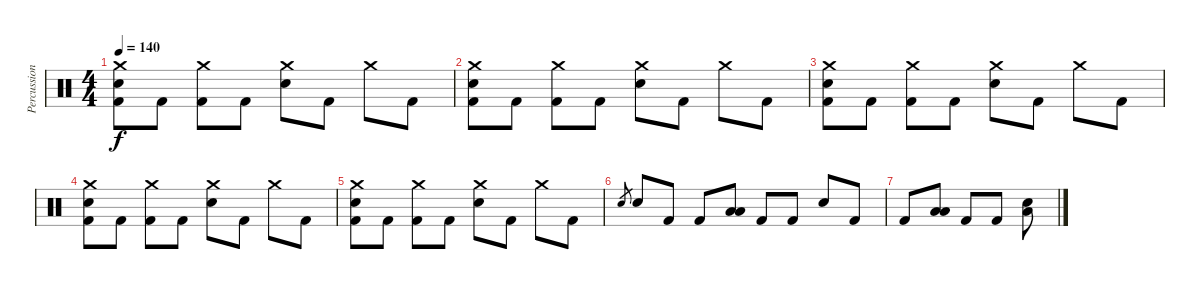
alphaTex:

\track ("Percussions" "Percussion") {instrument percussion}
\staff {score}
\articulation defaults
\ts (4 4)
\tempo 140
\clef neutral
\ks c
("Kick (hit) 2" "Electric Snare (hit)" "Crash medium (hit)").8{dy f} "Kick (hit) 2".8 ("Kick (hit) 2" "Crash medium (hit)").8 "Kick (hit) 2".8 ("Electric Snare (hit)" "Crash medium (hit)").8 "Kick (hit) 2".8 "Crash medium (hit)".8 "Kick (hit) 2".8 |
("Kick (hit) 2" "Electric Snare (hit)" "Crash medium (hit)").8 "Kick (hit) 2".8 ("Kick (hit) 2" "Crash medium (hit)").8 "Kick (hit) 2".8 ("Electric Snare (hit)" "Crash medium (hit)").8 "Kick (hit) 2".8 "Crash medium (hit)".8 "Kick (hit) 2".8 |
("Kick (hit) 2" "Electric Snare (hit)" "Crash medium (hit)").8 "Kick (hit) 2".8 ("Kick (hit) 2" "Crash medium (hit)").8 "Kick (hit) 2".8 ("Electric Snare (hit)" "Crash medium (hit)").8 "Kick (hit) 2".8 "Crash medium (hit)".8 "Kick (hit) 2".8 |
("Kick (hit) 2" "Electric Snare (hit)" "Crash medium (hit)").8 "Kick (hit) 2".8 ("Kick (hit) 2" "Crash medium (hit)").8 "Kick (hit) 2".8 ("Electric Snare (hit)" "Crash medium (hit)").8 "Kick (hit) 2".8 "Crash medium (hit)".8 "Kick (hit) 2".8 |
("Kick (hit) 2" "Electric Snare (hit)" "Crash medium (hit)").8 "Kick (hit) 2".8 ("Kick (hit) 2" "Crash medium (hit)").8 "Kick (hit) 2".8 ("Electric Snare (hit)" "Crash medium (hit)").8 "Kick (hit) 2".8 "Crash medium (hit)".8 "Kick (hit) 2".8 |
"Electric Snare (hit)".8{gr} "Electric Snare (hit)".8 "Kick (hit) 2".8 "Kick (hit) 2".8 ("Low Tom (hit)" "Low Floor Tom (hit)").8 "Kick (hit) 2".8 "Kick (hit) 2".8 "Electric Snare (hit)".8 "Kick (hit) 2".8 |
"Kick (hit) 2".8 ("Low Tom (hit)" "Low Floor Tom (hit)").8 "Kick (hit) 2".8 "Kick (hit) 2".8 ("Electric Snare (hit)" "Low Tom (hit)").8
